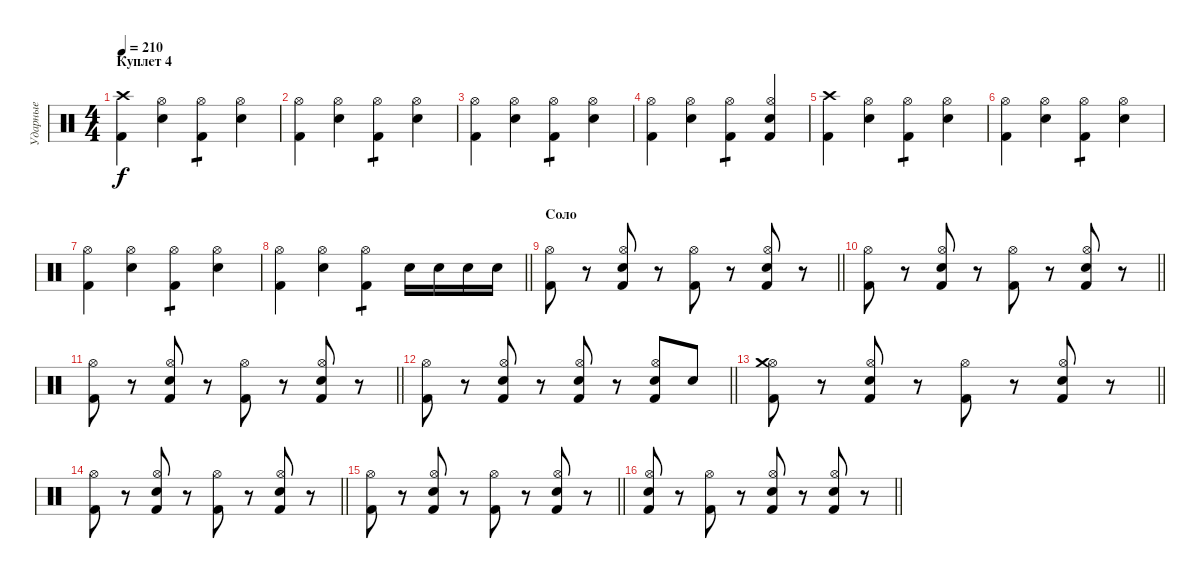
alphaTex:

\track ("Ударные" "Ударные") {instrument percussion}
\staff {score}
\articulation defaults
\ts (4 4)
\section ("" "Куплет 4")
\tempo 210
\clef neutral
\ks c
("Kick (hit) 2" "Crash high (hit)").4{dy f} ("Hi-Hat (open)" "Electric Snare (hit)").4 ("Kick (hit) 2" "Hi-Hat (open)").4{tp 1} ("Hi-Hat (open)" "Electric Snare (hit)").4 |
("Kick (hit) 2" "Hi-Hat (open)").4 ("Hi-Hat (open)" "Electric Snare (hit)").4 ("Kick (hit) 2" "Hi-Hat (open)").4{tp 1} ("Hi-Hat (open)" "Electric Snare (hit)").4 |
("Kick (hit) 2" "Hi-Hat (open)").4 ("Hi-Hat (open)" "Electric Snare (hit)").4 ("Kick (hit) 2" "Hi-Hat (open)").4{tp 1} ("Hi-Hat (open)" "Electric Snare (hit)").4 |
("Kick (hit) 2" "Hi-Hat (open)").4 ("Hi-Hat (open)" "Electric Snare (hit)").4 ("Kick (hit) 2" "Hi-Hat (open)").4{tp 1} ("Hi-Hat (open)" "Electric Snare (hit)" "Kick (hit) 2").4 |
("Kick (hit) 2" "Crash high (hit)").4 ("Hi-Hat (open)" "Electric Snare (hit)").4 ("Kick (hit) 2" "Hi-Hat (open)").4{tp 1} ("Hi-Hat (open)" "Electric Snare (hit)").4 |
("Kick (hit) 2" "Hi-Hat (open)").4 ("Hi-Hat (open)" "Electric Snare (hit)").4 ("Kick (hit) 2" "Hi-Hat (open)").4{tp 1} ("Hi-Hat (open)" "Electric Snare (hit)").4 |
("Kick (hit) 2" "Hi-Hat (open)").4 ("Hi-Hat (open)" "Electric Snare (hit)").4 ("Kick (hit) 2" "Hi-Hat (open)").4{tp 1} ("Hi-Hat (open)" "Electric Snare (hit)").4 |
\barLineRight lightlight
("Kick (hit) 2" "Hi-Hat (open)").4 ("Hi-Hat (open)" "Electric Snare (hit)").4 ("Kick (hit) 2" "Hi-Hat (open)").4{tp 1} "Electric Snare (hit)".16 "Electric Snare (hit)".16 "Electric Snare (hit)".16 "Electric Snare (hit)".16 |
\section ("" "Соло")
\barLineRight lightlight
("Kick (hit) 2" "Hi-Hat (open)").8 r.8 ("Kick (hit) 2" "Hi-Hat (open)" "Electric Snare (hit)").8 r.8 ("Kick (hit) 2" "Hi-Hat (open)").8 r.8 ("Kick (hit) 2" "Hi-Hat (open)" "Electric Snare (hit)").8 r.8 |
\barLineRight lightlight
("Kick (hit) 2" "Hi-Hat (open)").8 r.8 ("Kick (hit) 2" "Hi-Hat (open)" "Electric Snare (hit)").8 r.8 ("Kick (hit) 2" "Hi-Hat (open)").8 r.8 ("Kick (hit) 2" "Hi-Hat (open)" "Electric Snare (hit)").8 r.8 |
\barLineRight lightlight
("Kick (hit) 2" "Hi-Hat (open)").8 r.8 ("Kick (hit) 2" "Hi-Hat (open)" "Electric Snare (hit)").8 r.8 ("Kick (hit) 2" "Hi-Hat (open)").8 r.8 ("Kick (hit) 2" "Hi-Hat (open)" "Electric Snare (hit)").8 r.8 |
\barLineRight lightlight
("Kick (hit) 2" "Hi-Hat (open)").8 r.8 ("Kick (hit) 2" "Hi-Hat (open)" "Electric Snare (hit)").8 r.8 ("Kick (hit) 2" "Hi-Hat (open)" "Electric Snare (hit)").8 r.8 ("Kick (hit) 2" "Hi-Hat (open)" "Electric Snare (hit)").8 "Electric Snare (hit)".8 |
\barLineRight lightlight
("Kick (hit) 2" "Hi-Hat (open)" "Crash medium (hit)").8 r.8 ("Kick (hit) 2" "Hi-Hat (open)" "Electric Snare (hit)").8 r.8 ("Kick (hit) 2" "Hi-Hat (open)").8 r.8 ("Kick (hit) 2" "Hi-Hat (open)" "Electric Snare (hit)").8 r.8 |
\barLineRight lightlight
("Kick (hit) 2" "Hi-Hat (open)").8 r.8 ("Kick (hit) 2" "Hi-Hat (open)" "Electric Snare (hit)").8 r.8 ("Kick (hit) 2" "Hi-Hat (open)").8 r.8 ("Kick (hit) 2" "Hi-Hat (open)" "Electric Snare (hit)").8 r.8 |
\barLineRight lightlight
("Kick (hit) 2" "Hi-Hat (open)").8 r.8 ("Kick (hit) 2" "Hi-Hat (open)" "Electric Snare (hit)").8 r.8 ("Kick (hit) 2" "Hi-Hat (open)").8 r.8 ("Kick (hit) 2" "Hi-Hat (open)" "Electric Snare (hit)").8 r.8 |
\barLineRight lightlight
("Kick (hit) 2" "Hi-Hat (open)" "Electric Snare (hit)").8 r.8 ("Kick (hit) 2" "Hi-Hat (open)").8 r.8 ("Kick (hit) 2" "Hi-Hat (open)" "Electric Snare (hit)").8 r.8 ("Kick (hit) 2" "Hi-Hat (open)" "Electric Snare (hit)").8 r.8
